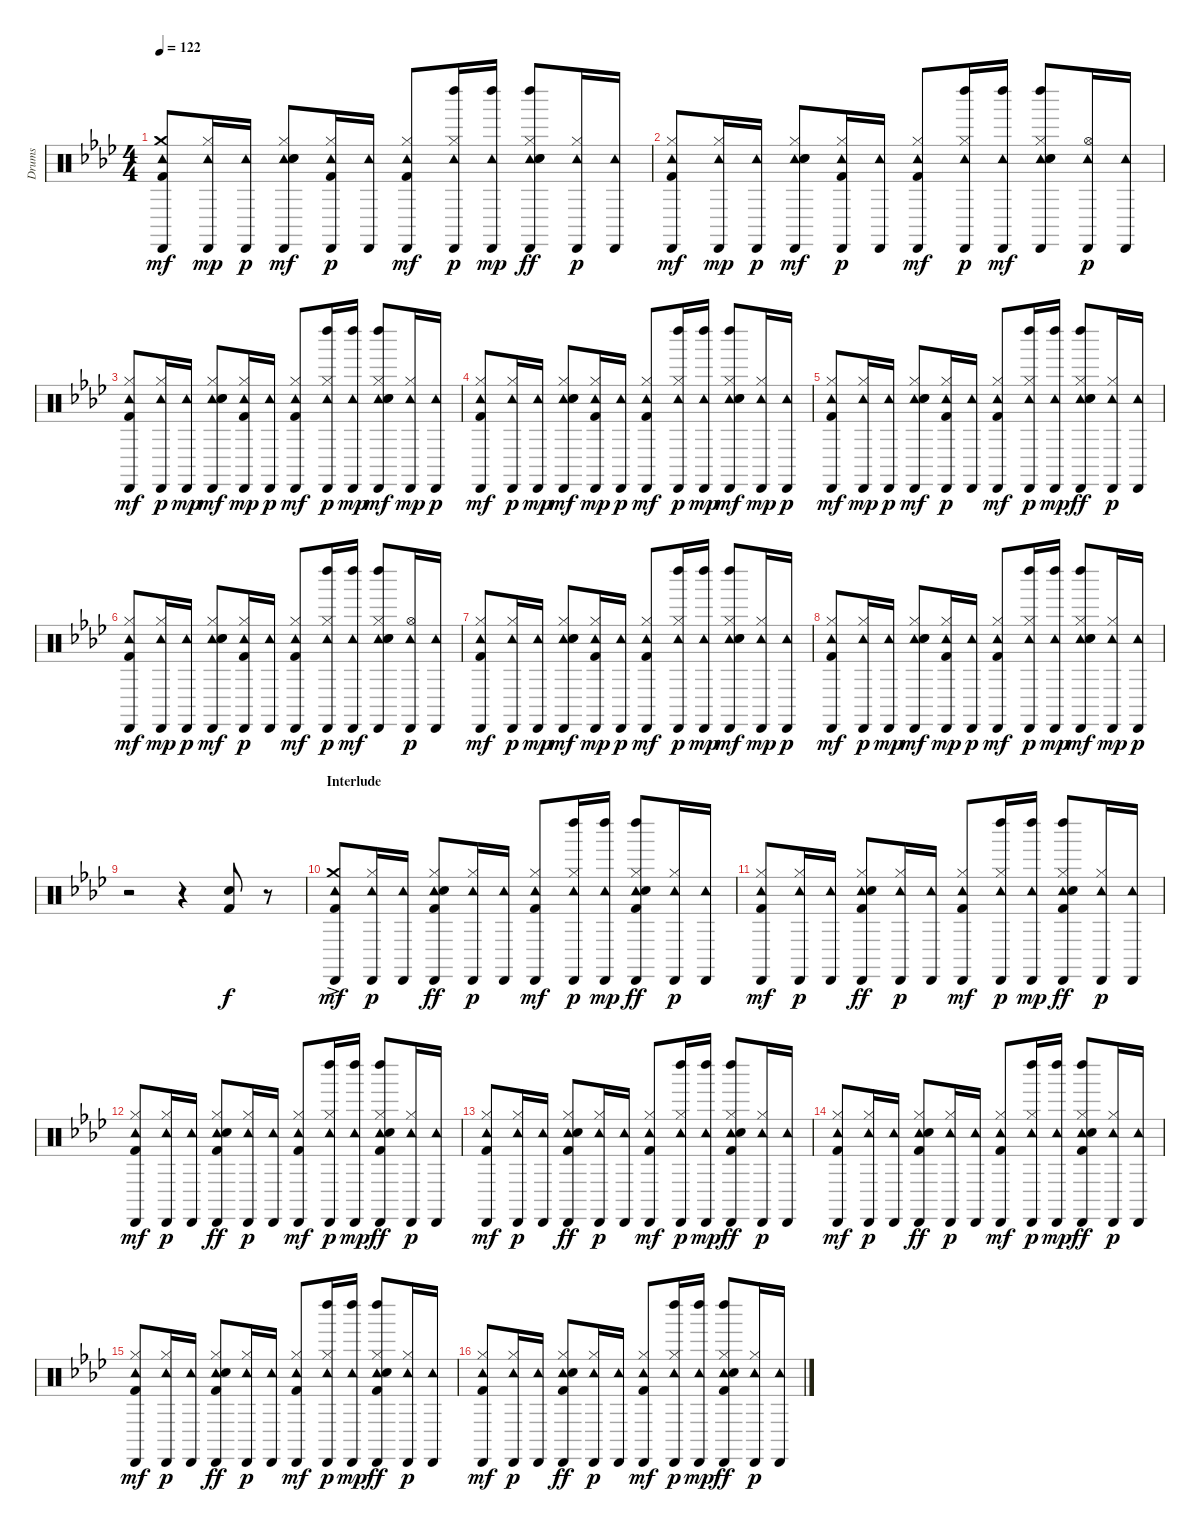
\track ("Drums" "Drums") {instrument percussion}
\staff {score}
\articulation defaults
\ts (4 4)
\tempo 122
\clef neutral
\ks ab
("Crash medium (hit)" "Cabasa (hit)" "Tambourine (hit)" "Kick (hit) 2").8{dy mf} ("Hi-Hat (closed)" "Cabasa (hit)" "Tambourine (hit)").16{dy mp} ("Cabasa (hit)" "Tambourine (hit)").16{dy p} ("Hi-Hat (closed)" "Cabasa (hit)" "Tambourine (hit)" "Hand Clap (hit)" "Electric Snare (hit)").8{dy mf} ("Hi-Hat (closed)" "Cabasa (hit)" "Tambourine (hit)" "Kick (hit) 2").16{dy p} ("Cabasa (hit)" "Tambourine (hit)").16 ("Hi-Hat (closed)" "Cabasa (hit)" "Tambourine (hit)" "Kick (hit) 2").8{dy mf} ("Hi-Hat (closed)" "Cabasa (hit)" "Tambourine (hit)" "Left Maraca (hit)").16{dy p} ("Cabasa (hit)" "Tambourine (hit)" "Left Maraca (hit)").16{dy mp} ("Hi-Hat (closed)" "Cabasa (hit)" "Tambourine (hit)" "Left Maraca (hit)" "Electric Snare (hit)" "Hand Clap (hit)").8{dy ff} ("Hi-Hat (closed)" "Cabasa (hit)" "Tambourine (hit)").16{dy p} ("Cabasa (hit)" "Tambourine (hit)").16 |
("Hi-Hat (closed)" "Cabasa (hit)" "Tambourine (hit)" "Kick (hit) 2").8{dy mf} ("Hi-Hat (closed)" "Cabasa (hit)" "Tambourine (hit)").16{dy mp} ("Cabasa (hit)" "Tambourine (hit)").16{dy p} ("Hi-Hat (closed)" "Cabasa (hit)" "Tambourine (hit)" "Hand Clap (hit)" "Electric Snare (hit)").8{dy mf} ("Hi-Hat (closed)" "Cabasa (hit)" "Tambourine (hit)" "Kick (hit) 2").16{dy p} ("Cabasa (hit)" "Tambourine (hit)").16 ("Hi-Hat (closed)" "Cabasa (hit)" "Tambourine (hit)" "Kick (hit) 2").8{dy mf} ("Hi-Hat (closed)" "Cabasa (hit)" "Tambourine (hit)" "Left Maraca (hit)").16{dy p} ("Cabasa (hit)" "Tambourine (hit)" "Left Maraca (hit)").16{dy mf} ("Hi-Hat (closed)" "Cabasa (hit)" "Tambourine (hit)" "Left Maraca (hit)" "Electric Snare (hit)" "Hand Clap (hit)").8 ("Hi-Hat (open)" "Cabasa (hit)" "Tambourine (hit)").16{dy p} ("Cabasa (hit)" "Tambourine (hit)").16 |
("Hi-Hat (closed)" "Cabasa (hit)" "Tambourine (hit)" "Kick (hit) 2").8{dy mf} ("Hi-Hat (closed)" "Cabasa (hit)" "Tambourine (hit)").16{dy p} ("Cabasa (hit)" "Tambourine (hit)").16{dy mp} ("Hi-Hat (closed)" "Cabasa (hit)" "Tambourine (hit)" "Electric Snare (hit)" "Hand Clap (hit)").8{dy mf} ("Hi-Hat (closed)" "Cabasa (hit)" "Tambourine (hit)" "Kick (hit) 2").16{dy mp} ("Cabasa (hit)" "Tambourine (hit)").16{dy p} ("Hi-Hat (closed)" "Cabasa (hit)" "Tambourine (hit)" "Kick (hit) 2").8{dy mf} ("Hi-Hat (closed)" "Cabasa (hit)" "Tambourine (hit)" "Left Maraca (hit)").16{dy p} ("Cabasa (hit)" "Tambourine (hit)" "Left Maraca (hit)").16{dy mp} ("Hi-Hat (closed)" "Cabasa (hit)" "Tambourine (hit)" "Left Maraca (hit)" "Electric Snare (hit)" "Hand Clap (hit)").8{dy mf} ("Hi-Hat (closed)" "Cabasa (hit)" "Tambourine (hit)").16{dy mp} ("Cabasa (hit)" "Tambourine (hit)").16{dy p} |
("Hi-Hat (closed)" "Cabasa (hit)" "Tambourine (hit)" "Kick (hit) 2").8{dy mf} ("Hi-Hat (closed)" "Cabasa (hit)" "Tambourine (hit)").16{dy p} ("Cabasa (hit)" "Tambourine (hit)").16{dy mp} ("Hi-Hat (closed)" "Cabasa (hit)" "Tambourine (hit)" "Electric Snare (hit)" "Hand Clap (hit)").8{dy mf} ("Hi-Hat (closed)" "Cabasa (hit)" "Tambourine (hit)" "Kick (hit) 2").16{dy mp} ("Cabasa (hit)" "Tambourine (hit)").16{dy p} ("Hi-Hat (closed)" "Cabasa (hit)" "Tambourine (hit)" "Kick (hit) 2").8{dy mf} ("Hi-Hat (closed)" "Cabasa (hit)" "Tambourine (hit)" "Left Maraca (hit)").16{dy p} ("Cabasa (hit)" "Tambourine (hit)" "Left Maraca (hit)").16{dy mp} ("Hi-Hat (closed)" "Cabasa (hit)" "Tambourine (hit)" "Left Maraca (hit)" "Electric Snare (hit)" "Hand Clap (hit)").8{dy mf} ("Hi-Hat (closed)" "Cabasa (hit)" "Tambourine (hit)").16{dy mp} ("Cabasa (hit)" "Tambourine (hit)").16{dy p} |
("Hi-Hat (closed)" "Cabasa (hit)" "Tambourine (hit)" "Kick (hit) 2").8{dy mf} ("Hi-Hat (closed)" "Cabasa (hit)" "Tambourine (hit)").16{dy mp} ("Cabasa (hit)" "Tambourine (hit)").16{dy p} ("Hi-Hat (closed)" "Cabasa (hit)" "Tambourine (hit)" "Hand Clap (hit)" "Electric Snare (hit)").8{dy mf} ("Hi-Hat (closed)" "Cabasa (hit)" "Tambourine (hit)" "Kick (hit) 2").16{dy p} ("Cabasa (hit)" "Tambourine (hit)").16 ("Hi-Hat (closed)" "Cabasa (hit)" "Tambourine (hit)" "Kick (hit) 2").8{dy mf} ("Hi-Hat (closed)" "Cabasa (hit)" "Tambourine (hit)" "Left Maraca (hit)").16{dy p} ("Cabasa (hit)" "Tambourine (hit)" "Left Maraca (hit)").16{dy mp} ("Hi-Hat (closed)" "Cabasa (hit)" "Tambourine (hit)" "Left Maraca (hit)" "Electric Snare (hit)" "Hand Clap (hit)").8{dy ff} ("Hi-Hat (closed)" "Cabasa (hit)" "Tambourine (hit)").16{dy p} ("Cabasa (hit)" "Tambourine (hit)").16 |
("Hi-Hat (closed)" "Cabasa (hit)" "Tambourine (hit)" "Kick (hit) 2").8{dy mf} ("Hi-Hat (closed)" "Cabasa (hit)" "Tambourine (hit)").16{dy mp} ("Cabasa (hit)" "Tambourine (hit)").16{dy p} ("Hi-Hat (closed)" "Cabasa (hit)" "Tambourine (hit)" "Hand Clap (hit)" "Electric Snare (hit)").8{dy mf} ("Hi-Hat (closed)" "Cabasa (hit)" "Tambourine (hit)" "Kick (hit) 2").16{dy p} ("Cabasa (hit)" "Tambourine (hit)").16 ("Hi-Hat (closed)" "Cabasa (hit)" "Tambourine (hit)" "Kick (hit) 2").8{dy mf} ("Hi-Hat (closed)" "Cabasa (hit)" "Tambourine (hit)" "Left Maraca (hit)").16{dy p} ("Cabasa (hit)" "Tambourine (hit)" "Left Maraca (hit)").16{dy mf} ("Hi-Hat (closed)" "Cabasa (hit)" "Tambourine (hit)" "Left Maraca (hit)" "Electric Snare (hit)" "Hand Clap (hit)").8 ("Hi-Hat (open)" "Cabasa (hit)" "Tambourine (hit)").16{dy p} ("Cabasa (hit)" "Tambourine (hit)").16 |
("Hi-Hat (closed)" "Cabasa (hit)" "Tambourine (hit)" "Kick (hit) 2").8{dy mf} ("Hi-Hat (closed)" "Cabasa (hit)" "Tambourine (hit)").16{dy p} ("Cabasa (hit)" "Tambourine (hit)").16{dy mp} ("Hi-Hat (closed)" "Cabasa (hit)" "Tambourine (hit)" "Electric Snare (hit)" "Hand Clap (hit)").8{dy mf} ("Hi-Hat (closed)" "Cabasa (hit)" "Tambourine (hit)" "Kick (hit) 2").16{dy mp} ("Cabasa (hit)" "Tambourine (hit)").16{dy p} ("Hi-Hat (closed)" "Cabasa (hit)" "Tambourine (hit)" "Kick (hit) 2").8{dy mf} ("Hi-Hat (closed)" "Cabasa (hit)" "Tambourine (hit)" "Left Maraca (hit)").16{dy p} ("Cabasa (hit)" "Tambourine (hit)" "Left Maraca (hit)").16{dy mp} ("Hi-Hat (closed)" "Cabasa (hit)" "Tambourine (hit)" "Left Maraca (hit)" "Electric Snare (hit)" "Hand Clap (hit)").8{dy mf} ("Hi-Hat (closed)" "Cabasa (hit)" "Tambourine (hit)").16{dy mp} ("Cabasa (hit)" "Tambourine (hit)").16{dy p} |
("Hi-Hat (closed)" "Cabasa (hit)" "Tambourine (hit)" "Kick (hit) 2").8{dy mf} ("Hi-Hat (closed)" "Cabasa (hit)" "Tambourine (hit)").16{dy p} ("Cabasa (hit)" "Tambourine (hit)").16{dy mp} ("Hi-Hat (closed)" "Cabasa (hit)" "Tambourine (hit)" "Electric Snare (hit)" "Hand Clap (hit)").8{dy mf} ("Hi-Hat (closed)" "Cabasa (hit)" "Tambourine (hit)" "Kick (hit) 2").16{dy mp} ("Cabasa (hit)" "Tambourine (hit)").16{dy p} ("Hi-Hat (closed)" "Cabasa (hit)" "Tambourine (hit)" "Kick (hit) 2").8{dy mf} ("Hi-Hat (closed)" "Cabasa (hit)" "Tambourine (hit)" "Left Maraca (hit)").16{dy p} ("Cabasa (hit)" "Tambourine (hit)" "Left Maraca (hit)").16{dy mp} ("Hi-Hat (closed)" "Cabasa (hit)" "Tambourine (hit)" "Left Maraca (hit)" "Electric Snare (hit)" "Hand Clap (hit)").8{dy mf} ("Hi-Hat (closed)" "Cabasa (hit)" "Tambourine (hit)").16{dy mp} ("Cabasa (hit)" "Tambourine (hit)").16{dy p} |
r.2 r.4 ("Electric Snare (hit)" "Kick (hit) 2").8{dy f} r.8 |
\section ("" "Interlude")
("Crash medium (hit)"{ac} "Cabasa (hit)" "Tambourine (hit)" "Kick (hit) 2").8{dy mf} ("Hi-Hat (closed)" "Cabasa (hit)" "Tambourine (hit)").16{dy p} ("Cabasa (hit)" "Tambourine (hit)").16 ("Hi-Hat (closed)" "Cabasa (hit)" "Tambourine (hit)" "Hand Clap (hit)" "Kick (hit) 2").8{dy ff} ("Hi-Hat (closed)" "Cabasa (hit)" "Tambourine (hit)").16{dy p} ("Cabasa (hit)" "Tambourine (hit)").16 ("Hi-Hat (closed)" "Cabasa (hit)" "Tambourine (hit)" "Kick (hit) 2").8{dy mf} ("Hi-Hat (closed)" "Cabasa (hit)" "Tambourine (hit)" "Left Maraca (hit)").16{dy p} ("Cabasa (hit)" "Tambourine (hit)" "Left Maraca (hit)").16{dy mp} ("Hi-Hat (closed)" "Cabasa (hit)" "Tambourine (hit)" "Left Maraca (hit)" "Hand Clap (hit)" "Kick (hit) 2").8{dy ff} ("Hi-Hat (closed)" "Cabasa (hit)" "Tambourine (hit)").16{dy p} ("Cabasa (hit)" "Tambourine (hit)").16 |
("Hi-Hat (closed)" "Cabasa (hit)" "Tambourine (hit)" "Kick (hit) 2").8{dy mf} ("Hi-Hat (closed)" "Cabasa (hit)" "Tambourine (hit)").16{dy p} ("Cabasa (hit)" "Tambourine (hit)").16 ("Hi-Hat (closed)" "Cabasa (hit)" "Tambourine (hit)" "Hand Clap (hit)" "Kick (hit) 2").8{dy ff} ("Hi-Hat (closed)" "Cabasa (hit)" "Tambourine (hit)").16{dy p} ("Cabasa (hit)" "Tambourine (hit)").16 ("Hi-Hat (closed)" "Cabasa (hit)" "Tambourine (hit)" "Kick (hit) 2").8{dy mf} ("Hi-Hat (closed)" "Cabasa (hit)" "Tambourine (hit)" "Left Maraca (hit)").16{dy p} ("Cabasa (hit)" "Tambourine (hit)" "Left Maraca (hit)").16{dy mp} ("Hi-Hat (closed)" "Cabasa (hit)" "Tambourine (hit)" "Left Maraca (hit)" "Hand Clap (hit)" "Kick (hit) 2").8{dy ff} ("Hi-Hat (closed)" "Cabasa (hit)" "Tambourine (hit)").16{dy p} ("Cabasa (hit)" "Tambourine (hit)").16 |
("Hi-Hat (closed)" "Cabasa (hit)" "Tambourine (hit)" "Kick (hit) 2").8{dy mf} ("Hi-Hat (closed)" "Cabasa (hit)" "Tambourine (hit)").16{dy p} ("Cabasa (hit)" "Tambourine (hit)").16 ("Hi-Hat (closed)" "Cabasa (hit)" "Tambourine (hit)" "Hand Clap (hit)" "Kick (hit) 2").8{dy ff} ("Hi-Hat (closed)" "Cabasa (hit)" "Tambourine (hit)").16{dy p} ("Cabasa (hit)" "Tambourine (hit)").16 ("Hi-Hat (closed)" "Cabasa (hit)" "Tambourine (hit)" "Kick (hit) 2").8{dy mf} ("Hi-Hat (closed)" "Cabasa (hit)" "Tambourine (hit)" "Left Maraca (hit)").16{dy p} ("Cabasa (hit)" "Tambourine (hit)" "Left Maraca (hit)").16{dy mp} ("Hi-Hat (closed)" "Cabasa (hit)" "Tambourine (hit)" "Left Maraca (hit)" "Hand Clap (hit)" "Kick (hit) 2").8{dy ff} ("Hi-Hat (closed)" "Cabasa (hit)" "Tambourine (hit)").16{dy p} ("Cabasa (hit)" "Tambourine (hit)").16 |
("Hi-Hat (closed)" "Cabasa (hit)" "Tambourine (hit)" "Kick (hit) 2").8{dy mf} ("Hi-Hat (closed)" "Cabasa (hit)" "Tambourine (hit)").16{dy p} ("Cabasa (hit)" "Tambourine (hit)").16 ("Hi-Hat (closed)" "Cabasa (hit)" "Tambourine (hit)" "Hand Clap (hit)" "Kick (hit) 2").8{dy ff} ("Hi-Hat (closed)" "Cabasa (hit)" "Tambourine (hit)").16{dy p} ("Cabasa (hit)" "Tambourine (hit)").16 ("Hi-Hat (closed)" "Cabasa (hit)" "Tambourine (hit)" "Kick (hit) 2").8{dy mf} ("Hi-Hat (closed)" "Cabasa (hit)" "Tambourine (hit)" "Left Maraca (hit)").16{dy p} ("Cabasa (hit)" "Tambourine (hit)" "Left Maraca (hit)").16{dy mp} ("Hi-Hat (closed)" "Cabasa (hit)" "Tambourine (hit)" "Left Maraca (hit)" "Hand Clap (hit)" "Kick (hit) 2").8{dy ff} ("Hi-Hat (closed)" "Cabasa (hit)" "Tambourine (hit)").16{dy p} ("Cabasa (hit)" "Tambourine (hit)").16 |
("Hi-Hat (closed)" "Cabasa (hit)" "Tambourine (hit)" "Kick (hit) 2").8{dy mf} ("Hi-Hat (closed)" "Cabasa (hit)" "Tambourine (hit)").16{dy p} ("Cabasa (hit)" "Tambourine (hit)").16 ("Hi-Hat (closed)" "Cabasa (hit)" "Tambourine (hit)" "Hand Clap (hit)" "Kick (hit) 2").8{dy ff} ("Hi-Hat (closed)" "Cabasa (hit)" "Tambourine (hit)").16{dy p} ("Cabasa (hit)" "Tambourine (hit)").16 ("Hi-Hat (closed)" "Cabasa (hit)" "Tambourine (hit)" "Kick (hit) 2").8{dy mf} ("Hi-Hat (closed)" "Cabasa (hit)" "Tambourine (hit)" "Left Maraca (hit)").16{dy p} ("Cabasa (hit)" "Tambourine (hit)" "Left Maraca (hit)").16{dy mp} ("Hi-Hat (closed)" "Cabasa (hit)" "Tambourine (hit)" "Left Maraca (hit)" "Hand Clap (hit)" "Kick (hit) 2").8{dy ff} ("Hi-Hat (closed)" "Cabasa (hit)" "Tambourine (hit)").16{dy p} ("Cabasa (hit)" "Tambourine (hit)").16 |
("Hi-Hat (closed)" "Cabasa (hit)" "Tambourine (hit)" "Kick (hit) 2").8{dy mf} ("Hi-Hat (closed)" "Cabasa (hit)" "Tambourine (hit)").16{dy p} ("Cabasa (hit)" "Tambourine (hit)").16 ("Hi-Hat (closed)" "Cabasa (hit)" "Tambourine (hit)" "Hand Clap (hit)" "Kick (hit) 2").8{dy ff} ("Hi-Hat (closed)" "Cabasa (hit)" "Tambourine (hit)").16{dy p} ("Cabasa (hit)" "Tambourine (hit)").16 ("Hi-Hat (closed)" "Cabasa (hit)" "Tambourine (hit)" "Kick (hit) 2").8{dy mf} ("Hi-Hat (closed)" "Cabasa (hit)" "Tambourine (hit)" "Left Maraca (hit)").16{dy p} ("Cabasa (hit)" "Tambourine (hit)" "Left Maraca (hit)").16{dy mp} ("Hi-Hat (closed)" "Cabasa (hit)" "Tambourine (hit)" "Left Maraca (hit)" "Hand Clap (hit)" "Kick (hit) 2").8{dy ff} ("Hi-Hat (closed)" "Cabasa (hit)" "Tambourine (hit)").16{dy p} ("Cabasa (hit)" "Tambourine (hit)").16 |
("Hi-Hat (closed)" "Cabasa (hit)" "Tambourine (hit)" "Kick (hit) 2").8{dy mf} ("Hi-Hat (closed)" "Cabasa (hit)" "Tambourine (hit)").16{dy p} ("Cabasa (hit)" "Tambourine (hit)").16 ("Hi-Hat (closed)" "Cabasa (hit)" "Tambourine (hit)" "Hand Clap (hit)" "Kick (hit) 2").8{dy ff} ("Hi-Hat (closed)" "Cabasa (hit)" "Tambourine (hit)").16{dy p} ("Cabasa (hit)" "Tambourine (hit)").16 ("Hi-Hat (closed)" "Cabasa (hit)" "Tambourine (hit)" "Kick (hit) 2").8{dy mf} ("Hi-Hat (closed)" "Cabasa (hit)" "Tambourine (hit)" "Left Maraca (hit)").16{dy p} ("Cabasa (hit)" "Tambourine (hit)" "Left Maraca (hit)").16{dy mp} ("Hi-Hat (closed)" "Cabasa (hit)" "Tambourine (hit)" "Left Maraca (hit)" "Hand Clap (hit)" "Kick (hit) 2").8{dy ff} ("Hi-Hat (closed)" "Cabasa (hit)" "Tambourine (hit)").16{dy p} ("Cabasa (hit)" "Tambourine (hit)").16
